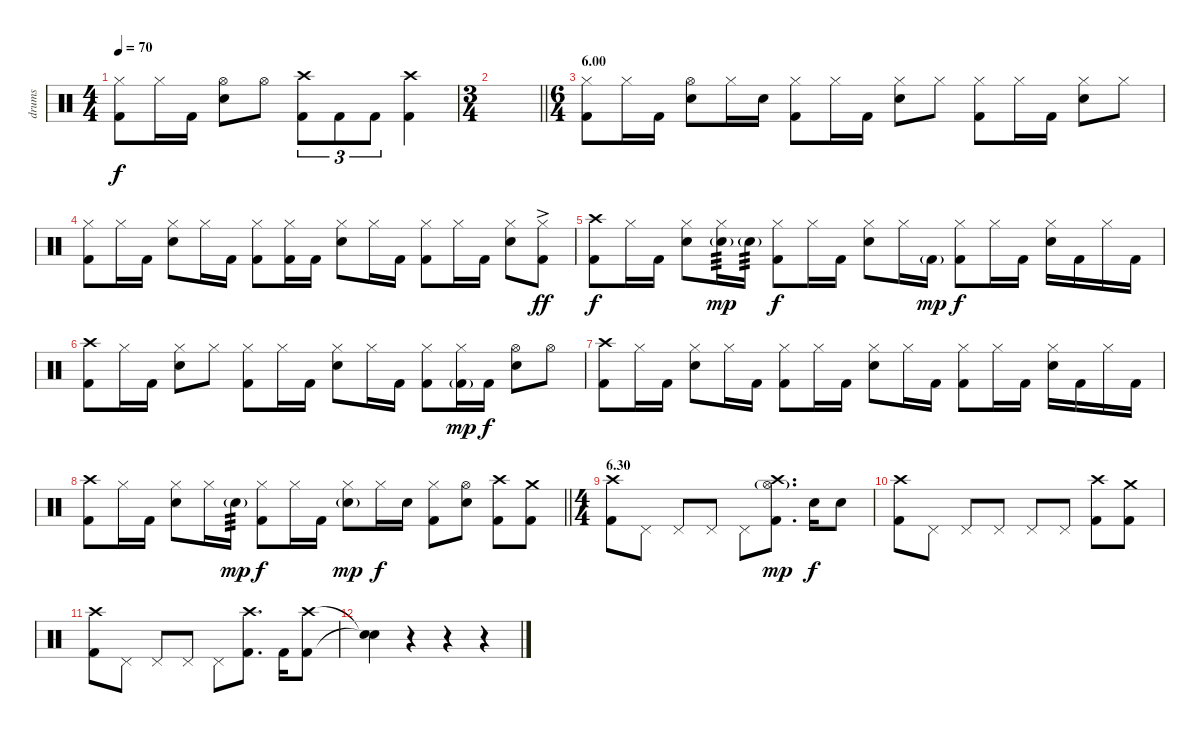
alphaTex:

\track ("drums" "drums") {instrument percussion}
\staff {score}
\articulation defaults
\ts (4 4)
\tempo 70
\clef neutral
\ks c
("Hi-Hat (closed)" "Kick (hit) 2").8{dy f} "Hi-Hat (closed)".16 "Kick (hit) 2".16 ("Hi-Hat (open)" "Electric Snare (hit)").8 "Hi-Hat (open)".8 ("Crash high (hit)" "Kick (hit) 2").8{tu (3 2)} "Kick (hit) 2".8{tu (3 2)} "Kick (hit) 2".8{tu (3 2)} ("Crash high (hit)" "Kick (hit) 2").4 |
\ts (3 4)
\barLineRight lightlight
|
\ts (6 4)
\section ("" "6.00")
("Hi-Hat (closed)" "Kick (hit) 2").8 "Hi-Hat (closed)".16 "Kick (hit) 2".16 ("Hi-Hat (open)" "Electric Snare (hit)").8 "Hi-Hat (closed)".16 "Electric Snare (hit)".16 ("Hi-Hat (closed)" "Kick (hit) 2").8 "Hi-Hat (closed)".16 "Kick (hit) 2".16 ("Hi-Hat (closed)" "Electric Snare (hit)").8 "Hi-Hat (closed)".8 ("Hi-Hat (closed)" "Kick (hit) 2").8 "Hi-Hat (closed)".16 "Kick (hit) 2".16 ("Hi-Hat (closed)" "Electric Snare (hit)").8 "Hi-Hat (closed)".8 |
("Hi-Hat (closed)" "Kick (hit) 2").8 "Hi-Hat (closed)".16 "Kick (hit) 2".16 ("Hi-Hat (closed)" "Electric Snare (hit)").8 "Hi-Hat (closed)".16 "Kick (hit) 2".16 ("Hi-Hat (closed)" "Kick (hit) 2").8 ("Hi-Hat (closed)" "Kick (hit) 2").16 "Kick (hit) 2".16 ("Hi-Hat (closed)" "Electric Snare (hit)").8 "Hi-Hat (closed)".16 "Kick (hit) 2".16 ("Hi-Hat (closed)" "Kick (hit) 2").8 "Hi-Hat (closed)".16 "Kick (hit) 2".16 ("Hi-Hat (closed)" "Electric Snare (hit)").8 ("Hi-Hat (closed)"{ac} "Kick (hit) 2"{ac}).8{dy ff} |
("Crash high (hit)" "Kick (hit) 2").8{dy f} "Hi-Hat (closed)".16 "Kick (hit) 2".16 ("Hi-Hat (closed)" "Electric Snare (hit)").8 ("Hi-Hat (closed)" "Electric Snare (hit)"{g}).16{tp 3 dy mp} "Electric Snare (hit)"{g}.16{tp 3} ("Hi-Hat (closed)" "Kick (hit) 2").8{dy f} "Hi-Hat (closed)".16 "Kick (hit) 2".16 ("Hi-Hat (closed)" "Electric Snare (hit)").8 "Hi-Hat (closed)".16 "Kick (hit) 2"{g}.16{dy mp} ("Hi-Hat (closed)" "Kick (hit) 2").8{dy f} "Hi-Hat (closed)".16 "Kick (hit) 2".16 ("Hi-Hat (closed)" "Electric Snare (hit)").16 "Kick (hit) 2".16 "Hi-Hat (closed)".16 "Kick (hit) 2".16 |
("Crash high (hit)" "Kick (hit) 2").8 "Hi-Hat (closed)".16 "Kick (hit) 2".16 ("Hi-Hat (closed)" "Electric Snare (hit)").8 "Hi-Hat (closed)".8 ("Hi-Hat (closed)" "Kick (hit) 2").8 "Hi-Hat (closed)".16 "Kick (hit) 2".16 ("Hi-Hat (closed)" "Electric Snare (hit)").8 "Hi-Hat (closed)".16 "Kick (hit) 2".16 ("Hi-Hat (closed)" "Kick (hit) 2").8 ("Hi-Hat (closed)" "Kick (hit) 2"{g}).16{dy mp} "Kick (hit) 2".16{dy f} ("Hi-Hat (open)" "Electric Snare (hit)").8 "Hi-Hat (open)".8 |
("Crash high (hit)" "Kick (hit) 2").8 "Hi-Hat (closed)".16 "Kick (hit) 2".16 ("Hi-Hat (closed)" "Electric Snare (hit)").8 "Hi-Hat (closed)".16 "Kick (hit) 2".16 ("Hi-Hat (closed)" "Kick (hit) 2").8 "Hi-Hat (closed)".16 "Kick (hit) 2".16 ("Hi-Hat (closed)" "Electric Snare (hit)").8 "Hi-Hat (closed)".16 "Kick (hit) 2".16 ("Hi-Hat (closed)" "Kick (hit) 2").8 "Hi-Hat (closed)".16 "Kick (hit) 2".16 ("Hi-Hat (closed)" "Electric Snare (hit)").16 "Kick (hit) 2".16 "Hi-Hat (closed)".16 "Kick (hit) 2".16 |
\barLineRight lightlight
("Crash high (hit)" "Kick (hit) 2").8 "Hi-Hat (closed)".16 "Kick (hit) 2".16 ("Hi-Hat (closed)" "Electric Snare (hit)").8 "Hi-Hat (closed)".16 "Electric Snare (hit)"{g}.16{tp 3 dy mp} ("Hi-Hat (closed)" "Kick (hit) 2").8{dy f} "Hi-Hat (closed)".16 "Kick (hit) 2".16 ("Hi-Hat (closed)" "Electric Snare (hit)"{g}).8{dy mp} "Hi-Hat (closed)".16{dy f} "Electric Snare (hit)".16 ("Hi-Hat (closed)" "Kick (hit) 2").8 ("Hi-Hat (open)" "Electric Snare (hit)").8 ("Crash high (hit)" "Kick (hit) 2").8 ("Crash medium (hit)" "Kick (hit) 2").8 |
\ts (4 4)
\section ("" "6.30")
("Crash high (hit)" "Kick (hit) 2").8 "Pedal Hi-Hat (hit)".8 "Pedal Hi-Hat (hit)".8 "Pedal Hi-Hat (hit)".8 "Pedal Hi-Hat (hit)".8 ("Crash high (hit)" "Hi-Hat (open)"{g} "Kick (hit) 2").8{d dy mp} "Electric Snare (hit)".16{dy f} "Electric Snare (hit)".8 |
("Crash high (hit)" "Kick (hit) 2").8 "Pedal Hi-Hat (hit)".8 "Pedal Hi-Hat (hit)".8 "Pedal Hi-Hat (hit)".8 "Pedal Hi-Hat (hit)".8 "Pedal Hi-Hat (hit)".8 ("Crash high (hit)" "Kick (hit) 2").8 ("Crash medium (hit)" "Kick (hit) 2").8 |
("Crash high (hit)" "Kick (hit) 2").8 "Pedal Hi-Hat (hit)".8 "Pedal Hi-Hat (hit)".8 "Pedal Hi-Hat (hit)".8 "Pedal Hi-Hat (hit)".8 ("Crash high (hit)" "Kick (hit) 2").8{d} "Kick (hit) 2".16 ("Crash high (hit)" "Kick (hit) 2").8 |
("Snare (hit)"{t} "Snare (hit)"{t}).4 r.4 r.4 r.4
